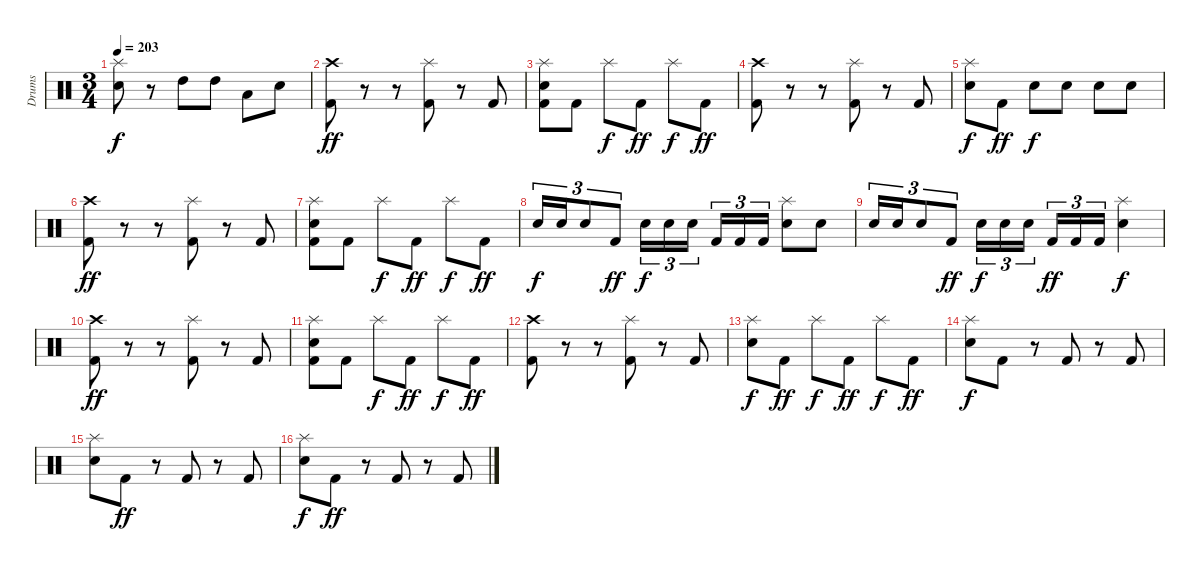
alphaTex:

\track ("Drums" "Drums") {instrument percussion}
\staff {score}
\articulation defaults
\ts (3 4)
\tempo 203
\clef neutral
\ks c
("Splash (hit)" "Electric Snare (hit)").8{dy f} r.8 "High Tom (hit)".8 "High Tom (hit)".8 "Low Tom (hit)".8 "Electric Snare (hit)".8 |
("Crash high (hit)" "Kick (hit) 2").8{dy ff} r.8 r.8 ("Splash (hit)" "Kick (hit) 2").8 r.8 "Kick (hit) 2".8 |
("Splash (hit)" "Electric Snare (hit)" "Kick (hit) 2").8 "Kick (hit) 2".8 "Splash (hit)".8{dy f} "Kick (hit) 2".8{dy ff} "Splash (hit)".8{dy f} "Kick (hit) 2".8{dy ff} |
("Crash high (hit)" "Kick (hit) 2").8 r.8 r.8 ("Splash (hit)" "Kick (hit) 2").8 r.8 "Kick (hit) 2".8 |
("Splash (hit)" "Electric Snare (hit)").8{dy f} "Kick (hit) 2".8{dy ff} "Electric Snare (hit)".8{dy f} "Electric Snare (hit)".8 "Electric Snare (hit)".8 "Electric Snare (hit)".8 |
("Crash high (hit)" "Kick (hit) 2").8{dy ff} r.8 r.8 ("Splash (hit)" "Kick (hit) 2").8 r.8 "Kick (hit) 2".8 |
("Splash (hit)" "Electric Snare (hit)" "Kick (hit) 2").8 "Kick (hit) 2".8 "Splash (hit)".8{dy f} "Kick (hit) 2".8{dy ff} "Splash (hit)".8{dy f} "Kick (hit) 2".8{dy ff} |
"Electric Snare (hit)".16{tu (3 2) dy f} "Electric Snare (hit)".16{tu (3 2)} "Electric Snare (hit)".8{tu (3 2)} "Kick (hit) 2".8{tu (3 2) dy ff} "Electric Snare (hit)".16{tu (3 2) dy f} "Electric Snare (hit)".16{tu (3 2)} "Electric Snare (hit)".16{tu (3 2)} "Kick (hit) 2".16{tu (3 2)} "Kick (hit) 2".16{tu (3 2)} "Kick (hit) 2".16{tu (3 2)} ("Splash (hit)" "Electric Snare (hit)").8 "Electric Snare (hit)".8 |
"Electric Snare (hit)".16{tu (3 2)} "Electric Snare (hit)".16{tu (3 2)} "Electric Snare (hit)".8{tu (3 2)} "Kick (hit) 2".8{tu (3 2) dy ff} "Electric Snare (hit)".16{tu (3 2) dy f} "Electric Snare (hit)".16{tu (3 2)} "Electric Snare (hit)".16{tu (3 2)} "Kick (hit) 2".16{tu (3 2) dy ff} "Kick (hit) 2".16{tu (3 2)} "Kick (hit) 2".16{tu (3 2)} ("Splash (hit)" "Electric Snare (hit)").4{dy f} |
("Crash high (hit)" "Kick (hit) 2").8{dy ff} r.8 r.8 ("Splash (hit)" "Kick (hit) 2").8 r.8 "Kick (hit) 2".8 |
("Splash (hit)" "Electric Snare (hit)" "Kick (hit) 2").8 "Kick (hit) 2".8 "Splash (hit)".8{dy f} "Kick (hit) 2".8{dy ff} "Splash (hit)".8{dy f} "Kick (hit) 2".8{dy ff} |
("Crash high (hit)" "Kick (hit) 2").8 r.8 r.8 ("Splash (hit)" "Kick (hit) 2").8 r.8 "Kick (hit) 2".8 |
("Splash (hit)" "Electric Snare (hit)").8{dy f} "Kick (hit) 2".8{dy ff} "Splash (hit)".8{dy f} "Kick (hit) 2".8{dy ff} "Splash (hit)".8{dy f} "Kick (hit) 2".8{dy ff} |
("Splash (hit)" "Electric Snare (hit)").8{dy f} "Kick (hit) 2".8 r.8 "Kick (hit) 2".8 r.8 "Kick (hit) 2".8 |
("Splash (hit)" "Electric Snare (hit)").8 "Kick (hit) 2".8{dy ff} r.8 "Kick (hit) 2".8 r.8 "Kick (hit) 2".8 |
("Splash (hit)" "Electric Snare (hit)").8{dy f} "Kick (hit) 2".8{dy ff} r.8 "Kick (hit) 2".8 r.8 "Kick (hit) 2".8
